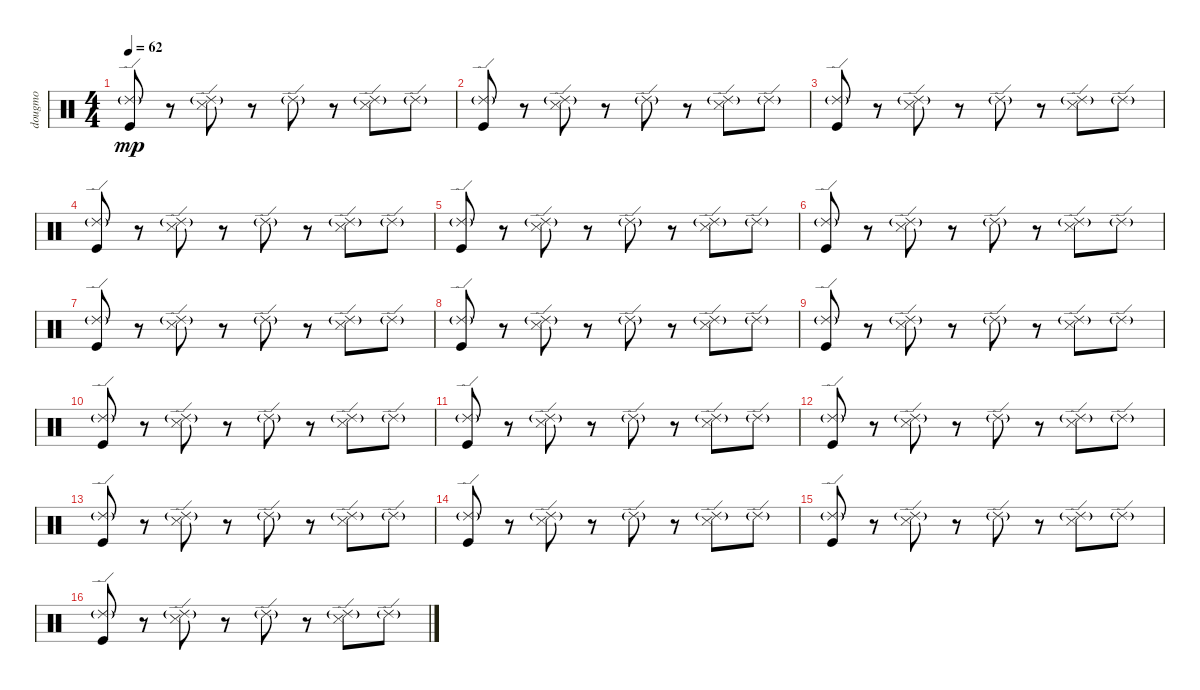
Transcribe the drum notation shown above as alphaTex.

\track ("dougmo" "dougmo") {instrument percussion}
\staff {score}
\articulation defaults
\ts (4 4)
\tempo 62
\clef neutral
\ks c
("Kick (hit)" "Ride (edge) 2"{g}).8{dy mp} r.8 ("Snare (side stick) 3" "Ride (edge) 2"{g}).8 r.8 "Ride (edge) 2"{g}.8 r.8 ("Snare (side stick) 3" "Ride (edge) 2"{g}).8 "Ride (edge) 2"{g}.8 |
("Kick (hit)" "Ride (edge) 2"{g}).8 r.8 ("Snare (side stick) 3" "Ride (edge) 2"{g}).8 r.8 "Ride (edge) 2"{g}.8 r.8 ("Snare (side stick) 3" "Ride (edge) 2"{g}).8 "Ride (edge) 2"{g}.8 |
("Kick (hit)" "Ride (edge) 2"{g}).8 r.8 ("Snare (side stick) 3" "Ride (edge) 2"{g}).8 r.8 "Ride (edge) 2"{g}.8 r.8 ("Snare (side stick) 3" "Ride (edge) 2"{g}).8 "Ride (edge) 2"{g}.8 |
("Kick (hit)" "Ride (edge) 2"{g}).8 r.8 ("Snare (side stick) 3" "Ride (edge) 2"{g}).8 r.8 "Ride (edge) 2"{g}.8 r.8 ("Snare (side stick) 3" "Ride (edge) 2"{g}).8 "Ride (edge) 2"{g}.8 |
("Kick (hit)" "Ride (edge) 2"{g}).8 r.8 ("Snare (side stick) 3" "Ride (edge) 2"{g}).8 r.8 "Ride (edge) 2"{g}.8 r.8 ("Snare (side stick) 3" "Ride (edge) 2"{g}).8 "Ride (edge) 2"{g}.8 |
("Kick (hit)" "Ride (edge) 2"{g}).8 r.8 ("Snare (side stick) 3" "Ride (edge) 2"{g}).8 r.8 "Ride (edge) 2"{g}.8 r.8 ("Snare (side stick) 3" "Ride (edge) 2"{g}).8 "Ride (edge) 2"{g}.8 |
("Kick (hit)" "Ride (edge) 2"{g}).8 r.8 ("Snare (side stick) 3" "Ride (edge) 2"{g}).8 r.8 "Ride (edge) 2"{g}.8 r.8 ("Snare (side stick) 3" "Ride (edge) 2"{g}).8 "Ride (edge) 2"{g}.8 |
("Kick (hit)" "Ride (edge) 2"{g}).8 r.8 ("Snare (side stick) 3" "Ride (edge) 2"{g}).8 r.8 "Ride (edge) 2"{g}.8 r.8 ("Snare (side stick) 3" "Ride (edge) 2"{g}).8 "Ride (edge) 2"{g}.8 |
("Kick (hit)" "Ride (edge) 2"{g}).8 r.8 ("Snare (side stick) 3" "Ride (edge) 2"{g}).8 r.8 "Ride (edge) 2"{g}.8 r.8 ("Snare (side stick) 3" "Ride (edge) 2"{g}).8 "Ride (edge) 2"{g}.8 |
("Kick (hit)" "Ride (edge) 2"{g}).8 r.8 ("Snare (side stick) 3" "Ride (edge) 2"{g}).8 r.8 "Ride (edge) 2"{g}.8 r.8 ("Snare (side stick) 3" "Ride (edge) 2"{g}).8 "Ride (edge) 2"{g}.8 |
("Kick (hit)" "Ride (edge) 2"{g}).8 r.8 ("Snare (side stick) 3" "Ride (edge) 2"{g}).8 r.8 "Ride (edge) 2"{g}.8 r.8 ("Snare (side stick) 3" "Ride (edge) 2"{g}).8 "Ride (edge) 2"{g}.8 |
("Kick (hit)" "Ride (edge) 2"{g}).8 r.8 ("Snare (side stick) 3" "Ride (edge) 2"{g}).8 r.8 "Ride (edge) 2"{g}.8 r.8 ("Snare (side stick) 3" "Ride (edge) 2"{g}).8 "Ride (edge) 2"{g}.8 |
("Kick (hit)" "Ride (edge) 2"{g}).8 r.8 ("Snare (side stick) 3" "Ride (edge) 2"{g}).8 r.8 "Ride (edge) 2"{g}.8 r.8 ("Snare (side stick) 3" "Ride (edge) 2"{g}).8 "Ride (edge) 2"{g}.8 |
("Kick (hit)" "Ride (edge) 2"{g}).8 r.8 ("Snare (side stick) 3" "Ride (edge) 2"{g}).8 r.8 "Ride (edge) 2"{g}.8 r.8 ("Snare (side stick) 3" "Ride (edge) 2"{g}).8 "Ride (edge) 2"{g}.8 |
("Kick (hit)" "Ride (edge) 2"{g}).8 r.8 ("Snare (side stick) 3" "Ride (edge) 2"{g}).8 r.8 "Ride (edge) 2"{g}.8 r.8 ("Snare (side stick) 3" "Ride (edge) 2"{g}).8 "Ride (edge) 2"{g}.8 |
("Kick (hit)" "Ride (edge) 2"{g}).8 r.8 ("Snare (side stick) 3" "Ride (edge) 2"{g}).8 r.8 "Ride (edge) 2"{g}.8 r.8 ("Snare (side stick) 3" "Ride (edge) 2"{g}).8 "Ride (edge) 2"{g}.8
